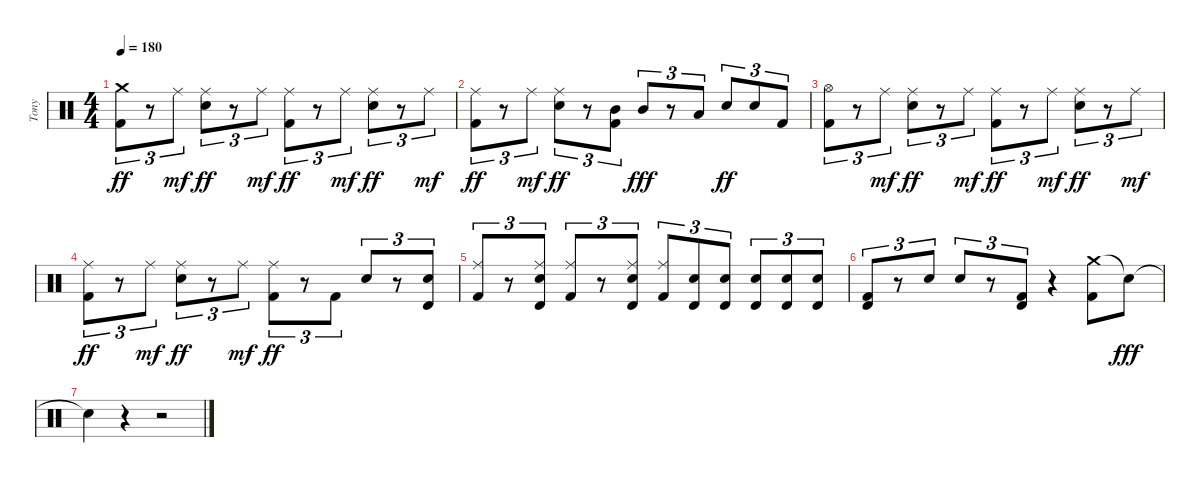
\track ("Tony" "Tony") {instrument percussion}
\staff {score}
\articulation defaults
\ts (4 4)
\tempo 180
\clef neutral
\ks c
("Crash medium (hit)" "Kick (hit) 2").8{tu (3 2) dy ff} r.8{tu (3 2)} "Ride (middle)".8{tu (3 2) dy mf} ("Ride (middle)" "Electric Snare (hit)").8{tu (3 2) dy ff} r.8{tu (3 2)} "Ride (middle)".8{tu (3 2) dy mf} ("Ride (middle)" "Kick (hit) 2").8{tu (3 2) dy ff} r.8{tu (3 2)} "Ride (middle)".8{tu (3 2) dy mf} ("Ride (middle)" "Electric Snare (hit)").8{tu (3 2) dy ff} r.8{tu (3 2)} "Ride (middle)".8{tu (3 2) dy mf} |
("Ride (middle)" "Kick (hit) 2").8{tu (3 2) dy ff} r.8{tu (3 2)} "Ride (middle)".8{tu (3 2) dy mf} ("Ride (middle)" "Electric Snare (hit)").8{tu (3 2) dy ff} r.8{tu (3 2)} ("Mid Tom (hit)" "Kick (hit) 2").8{tu (3 2)} "Mid Tom (hit)".8{tu (3 2) dy fff} r.8{tu (3 2)} "Low Tom (hit)".8{tu (3 2)} "Electric Snare (hit)".8{tu (3 2) dy ff} "Electric Snare (hit)".8{tu (3 2)} "Kick (hit) 2".8{tu (3 2)} |
("Hi-Hat (open)" "Kick (hit) 2").8{tu (3 2)} r.8{tu (3 2)} "Ride (middle)".8{tu (3 2) dy mf} ("Ride (middle)" "Electric Snare (hit)").8{tu (3 2) dy ff} r.8{tu (3 2)} "Ride (middle)".8{tu (3 2) dy mf} ("Ride (middle)" "Kick (hit) 2").8{tu (3 2) dy ff} r.8{tu (3 2)} "Ride (middle)".8{tu (3 2) dy mf} ("Ride (middle)" "Electric Snare (hit)").8{tu (3 2) dy ff} r.8{tu (3 2)} "Ride (middle)".8{tu (3 2) dy mf} |
("Ride (middle)" "Kick (hit) 2").8{tu (3 2) dy ff} r.8{tu (3 2)} "Ride (middle)".8{tu (3 2) dy mf} ("Ride (middle)" "Electric Snare (hit)").8{tu (3 2) dy ff} r.8{tu (3 2)} "Ride (middle)".8{tu (3 2) dy mf} ("Ride (middle)" "Kick (hit) 2").8{tu (3 2) dy ff} r.8{tu (3 2)} "Kick (hit) 2".8{tu (3 2)} "Electric Snare (hit)".8{tu (3 2)} r.8{tu (3 2)} ("Timbale high (hit)" "Electric Snare (hit)").8{tu (3 2)} |
("Ride (middle)" "Kick (hit) 2").8{tu (3 2)} r.8{tu (3 2)} ("Timbale high (hit)" "Ride (middle)" "Electric Snare (hit)").8{tu (3 2)} ("Ride (middle)" "Kick (hit) 2").8{tu (3 2)} r.8{tu (3 2)} ("Timbale high (hit)" "Ride (middle)" "Electric Snare (hit)").8{tu (3 2)} ("Ride (middle)" "Kick (hit) 2").8{tu (3 2)} ("Timbale high (hit)" "Electric Snare (hit)").8{tu (3 2)} ("Timbale high (hit)" "Electric Snare (hit)").8{tu (3 2)} ("Timbale high (hit)" "Electric Snare (hit)").8{tu (3 2)} ("Timbale high (hit)" "Electric Snare (hit)").8{tu (3 2)} ("Timbale high (hit)" "Electric Snare (hit)").8{tu (3 2)} |
("Timbale high (hit)" "Kick (hit) 2").8{tu (3 2)} r.8{tu (3 2)} "Electric Snare (hit)".8{tu (3 2)} "Electric Snare (hit)".8{tu (3 2)} r.8{tu (3 2)} ("Timbale high (hit)" "Kick (hit) 2").8{tu (3 2)} r.4 ("Crash medium (hit)" "Kick (hit) 2").8 "Snare (hit)"{t}.8{dy fff} |
"Snare (hit)"{t}.4 r.4 r.2
